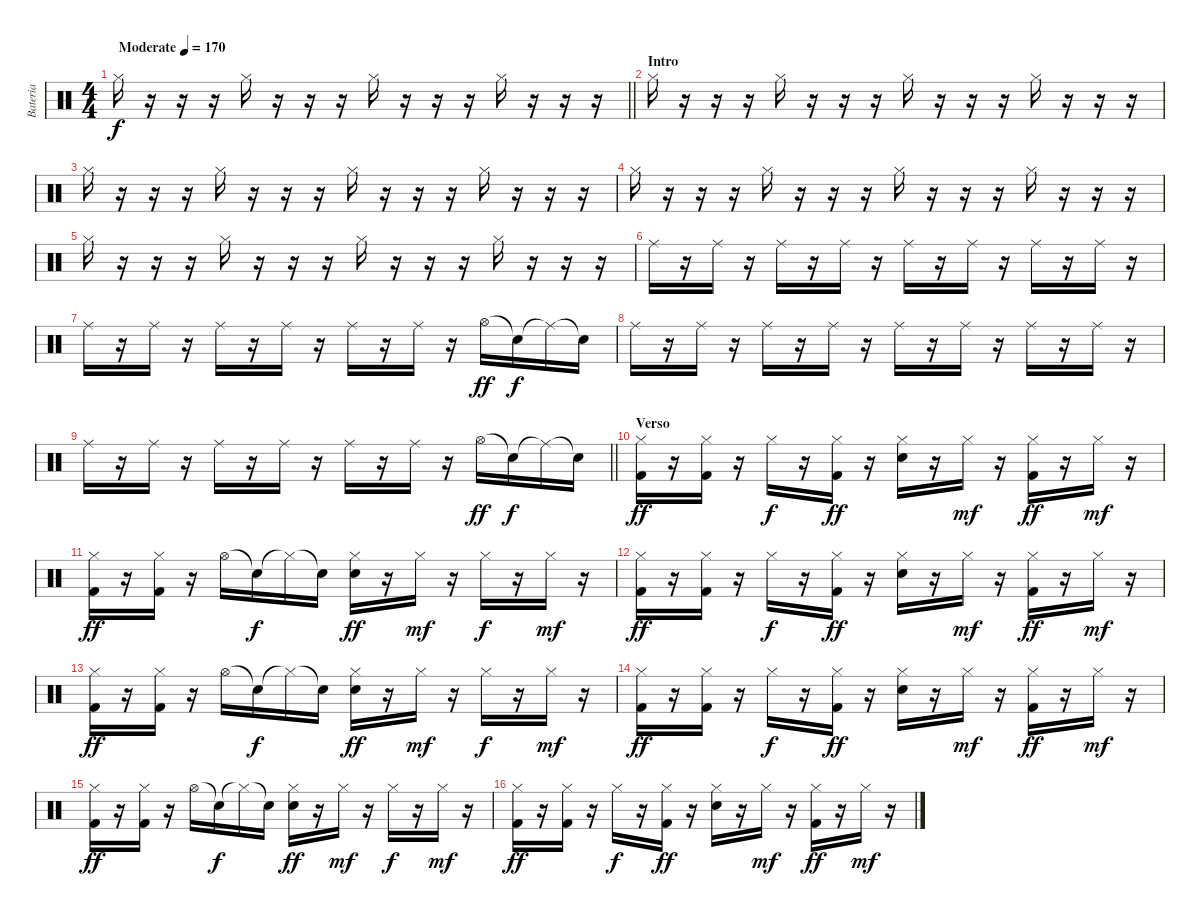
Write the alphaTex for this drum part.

\track ("Bateria" "Bateria") {instrument percussion}
\staff {score}
\articulation defaults
\ts (4 4)
\tempo (170 "Moderate")
\clef neutral
\barLineRight lightlight
\ks c "Hi-Hat (closed)".16{dy f}
r.16 r.16 r.16 "Hi-Hat (closed)".16 r.16 r.16 r.16 "Hi-Hat (closed)".16 r.16 r.16 r.16 "Hi-Hat (closed)".16 r.16 r.16 r.16 |
\section ("" "Intro")
"Hi-Hat (closed)".16 r.16 r.16 r.16 "Hi-Hat (closed)".16 r.16 r.16 r.16 "Hi-Hat (closed)".16 r.16 r.16 r.16 "Hi-Hat (closed)".16 r.16 r.16 r.16 |
"Hi-Hat (closed)".16 r.16 r.16 r.16 "Hi-Hat (closed)".16 r.16 r.16 r.16 "Hi-Hat (closed)".16 r.16 r.16 r.16 "Hi-Hat (closed)".16 r.16 r.16 r.16 |
"Hi-Hat (closed)".16 r.16 r.16 r.16 "Hi-Hat (closed)".16 r.16 r.16 r.16 "Hi-Hat (closed)".16 r.16 r.16 r.16 "Hi-Hat (closed)".16 r.16 r.16 r.16 |
"Hi-Hat (closed)".16 r.16 r.16 r.16 "Hi-Hat (closed)".16 r.16 r.16 r.16 "Hi-Hat (closed)".16 r.16 r.16 r.16 "Hi-Hat (closed)".16 r.16 r.16 r.16 |
"Ride (middle)".16 r.16 "Ride (middle)".16 r.16 "Ride (middle)".16 r.16 "Ride (middle)".16 r.16 "Ride (middle)".16 r.16 "Ride (middle)".16 r.16 "Ride (middle)".16 r.16 "Ride (middle)".16 r.16 |
"Ride (middle)".16 r.16 "Ride (middle)".16 r.16 "Ride (middle)".16 r.16 "Ride (middle)".16 r.16 "Ride (middle)".16 r.16 "Ride (middle)".16 r.16 "Hi-Hat (open)".16{dy ff} "Snare (hit)"{t}.16{dy f} "Ride (middle)"{t}.16 "Snare (hit)"{t}.16 |
"Ride (middle)".16 r.16 "Ride (middle)".16 r.16 "Ride (middle)".16 r.16 "Ride (middle)".16 r.16 "Ride (middle)".16 r.16 "Ride (middle)".16 r.16 "Ride (middle)".16 r.16 "Ride (middle)".16 r.16 |
\barLineRight lightlight "Ride (middle)".16
r.16 "Ride (middle)".16 r.16 "Ride (middle)".16 r.16 "Ride (middle)".16 r.16 "Ride (middle)".16 r.16 "Ride (middle)".16 r.16 "Hi-Hat (open)".16{dy ff} "Snare (hit)"{t}.16{dy f} "Ride (middle)"{t}.16 "Snare (hit)"{t}.16 |
\section ("" "Verso")
("Hi-Hat (closed)" "Kick (hit) 2").16{dy ff} r.16 ("Hi-Hat (closed)" "Kick (hit) 2").16 r.16 "Hi-Hat (closed)".16{dy f} r.16 ("Hi-Hat (closed)" "Kick (hit) 2").16{dy ff} r.16 ("Hi-Hat (closed)" "Electric Snare (hit)").16 r.16 "Hi-Hat (closed)".16{dy mf} r.16 ("Hi-Hat (closed)" "Kick (hit) 2").16{dy ff} r.16 "Hi-Hat (closed)".16{dy mf} r.16 |
("Hi-Hat (closed)" "Kick (hit) 2").16{dy ff} r.16 ("Hi-Hat (closed)" "Kick (hit) 2").16 r.16 "Hi-Hat (open)".16 "Snare (hit)"{t}.16{dy f} "Hi-Hat (closed)"{t}.16 "Snare (hit)"{t}.16 ("Hi-Hat (closed)" "Electric Snare (hit)").16{dy ff} r.16 "Hi-Hat (closed)".16{dy mf} r.16 "Hi-Hat (closed)".16{dy f} r.16 "Hi-Hat (closed)".16{dy mf} r.16 |
("Hi-Hat (closed)" "Kick (hit) 2").16{dy ff} r.16 ("Hi-Hat (closed)" "Kick (hit) 2").16 r.16 "Hi-Hat (closed)".16{dy f} r.16 ("Hi-Hat (closed)" "Kick (hit) 2").16{dy ff} r.16 ("Hi-Hat (closed)" "Electric Snare (hit)").16 r.16 "Hi-Hat (closed)".16{dy mf} r.16 ("Hi-Hat (closed)" "Kick (hit) 2").16{dy ff} r.16 "Hi-Hat (closed)".16{dy mf} r.16 |
("Hi-Hat (closed)" "Kick (hit) 2").16{dy ff} r.16 ("Hi-Hat (closed)" "Kick (hit) 2").16 r.16 "Hi-Hat (open)".16 "Snare (hit)"{t}.16{dy f} "Hi-Hat (closed)"{t}.16 "Snare (hit)"{t}.16 ("Hi-Hat (closed)" "Electric Snare (hit)").16{dy ff} r.16 "Hi-Hat (closed)".16{dy mf} r.16 "Hi-Hat (closed)".16{dy f} r.16 "Hi-Hat (closed)".16{dy mf} r.16 |
("Hi-Hat (closed)" "Kick (hit) 2").16{dy ff} r.16 ("Hi-Hat (closed)" "Kick (hit) 2").16 r.16 "Hi-Hat (closed)".16{dy f} r.16 ("Hi-Hat (closed)" "Kick (hit) 2").16{dy ff} r.16 ("Hi-Hat (closed)" "Electric Snare (hit)").16 r.16 "Hi-Hat (closed)".16{dy mf} r.16 ("Hi-Hat (closed)" "Kick (hit) 2").16{dy ff} r.16 "Hi-Hat (closed)".16{dy mf} r.16 |
("Hi-Hat (closed)" "Kick (hit) 2").16{dy ff} r.16 ("Hi-Hat (closed)" "Kick (hit) 2").16 r.16 "Hi-Hat (open)".16 "Snare (hit)"{t}.16{dy f} "Hi-Hat (closed)"{t}.16 "Snare (hit)"{t}.16 ("Hi-Hat (closed)" "Electric Snare (hit)").16{dy ff} r.16 "Hi-Hat (closed)".16{dy mf} r.16 "Hi-Hat (closed)".16{dy f} r.16 "Hi-Hat (closed)".16{dy mf} r.16 |
("Hi-Hat (closed)" "Kick (hit) 2").16{dy ff} r.16 ("Hi-Hat (closed)" "Kick (hit) 2").16 r.16 "Hi-Hat (closed)".16{dy f} r.16 ("Hi-Hat (closed)" "Kick (hit) 2").16{dy ff} r.16 ("Hi-Hat (closed)" "Electric Snare (hit)").16 r.16 "Hi-Hat (closed)".16{dy mf} r.16 ("Hi-Hat (closed)" "Kick (hit) 2").16{dy ff} r.16 "Hi-Hat (closed)".16{dy mf} r.16
